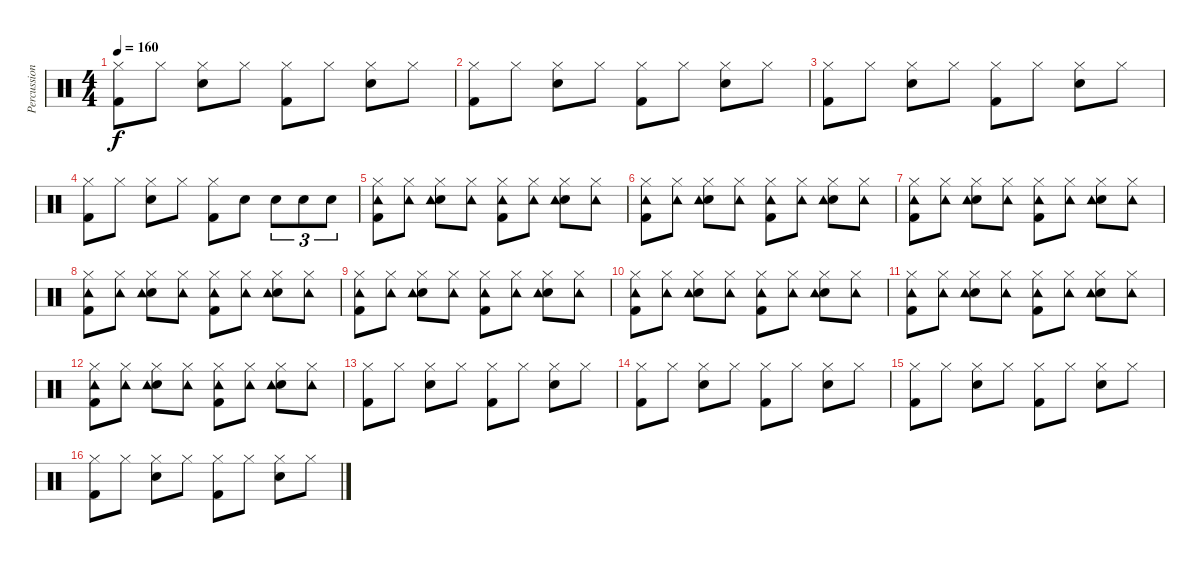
\track ("Percussion" "Percussion") {instrument percussion}
\staff {score}
\articulation defaults
\ts (4 4)
\tempo 160
\clef neutral
\ks c
("Hi-Hat (closed)" "Kick (hit) 2").8{dy f} "Hi-Hat (closed)".8 ("Hi-Hat (closed)" "Snare (hit) 2").8 "Hi-Hat (closed)".8 ("Hi-Hat (closed)" "Kick (hit) 2").8 "Hi-Hat (closed)".8 ("Hi-Hat (closed)" "Snare (hit) 2").8 "Hi-Hat (closed)".8 |
("Hi-Hat (closed)" "Kick (hit) 2").8 "Hi-Hat (closed)".8 ("Hi-Hat (closed)" "Snare (hit) 2").8 "Hi-Hat (closed)".8 ("Hi-Hat (closed)" "Kick (hit) 2").8 "Hi-Hat (closed)".8 ("Hi-Hat (closed)" "Snare (hit) 2").8 "Hi-Hat (closed)".8 |
("Hi-Hat (closed)" "Kick (hit) 2").8 "Hi-Hat (closed)".8 ("Hi-Hat (closed)" "Snare (hit) 2").8 "Hi-Hat (closed)".8 ("Hi-Hat (closed)" "Kick (hit) 2").8 "Hi-Hat (closed)".8 ("Hi-Hat (closed)" "Snare (hit) 2").8 "Hi-Hat (closed)".8 |
("Hi-Hat (closed)" "Kick (hit) 2").8 "Hi-Hat (closed)".8 ("Hi-Hat (closed)" "Snare (hit) 2").8 "Hi-Hat (closed)".8 ("Hi-Hat (closed)" "Kick (hit) 2").8 "Snare (hit) 2".8 "Snare (hit) 2".8{tu (3 2)} "Snare (hit) 2".8{tu (3 2)} "Snare (hit) 2".8{tu (3 2)} |
("Hi-Hat (closed)" "Tambourine (hit)" "Kick (hit) 2").8 ("Hi-Hat (closed)" "Tambourine (hit)").8 ("Hi-Hat (closed)" "Snare (hit) 2" "Tambourine (hit)").8 ("Hi-Hat (closed)" "Tambourine (hit)").8 ("Hi-Hat (closed)" "Tambourine (hit)" "Kick (hit) 2").8 ("Hi-Hat (closed)" "Tambourine (hit)").8 ("Hi-Hat (closed)" "Snare (hit) 2" "Tambourine (hit)").8 ("Hi-Hat (closed)" "Tambourine (hit)").8 |
("Hi-Hat (closed)" "Tambourine (hit)" "Kick (hit) 2").8 ("Hi-Hat (closed)" "Tambourine (hit)").8 ("Hi-Hat (closed)" "Snare (hit) 2" "Tambourine (hit)").8 ("Hi-Hat (closed)" "Tambourine (hit)").8 ("Hi-Hat (closed)" "Tambourine (hit)" "Kick (hit) 2").8 ("Hi-Hat (closed)" "Tambourine (hit)").8 ("Hi-Hat (closed)" "Snare (hit) 2" "Tambourine (hit)").8 ("Hi-Hat (closed)" "Tambourine (hit)").8 |
("Hi-Hat (closed)" "Tambourine (hit)" "Kick (hit) 2").8 ("Hi-Hat (closed)" "Tambourine (hit)").8 ("Hi-Hat (closed)" "Snare (hit) 2" "Tambourine (hit)").8 ("Hi-Hat (closed)" "Tambourine (hit)").8 ("Hi-Hat (closed)" "Tambourine (hit)" "Kick (hit) 2").8 ("Hi-Hat (closed)" "Tambourine (hit)").8 ("Hi-Hat (closed)" "Snare (hit) 2" "Tambourine (hit)").8 ("Hi-Hat (closed)" "Tambourine (hit)").8 |
("Hi-Hat (closed)" "Tambourine (hit)" "Kick (hit) 2").8 ("Hi-Hat (closed)" "Tambourine (hit)").8 ("Hi-Hat (closed)" "Snare (hit) 2" "Tambourine (hit)").8 ("Hi-Hat (closed)" "Tambourine (hit)").8 ("Hi-Hat (closed)" "Tambourine (hit)" "Kick (hit) 2").8 ("Hi-Hat (closed)" "Tambourine (hit)").8 ("Hi-Hat (closed)" "Snare (hit) 2" "Tambourine (hit)").8 ("Hi-Hat (closed)" "Tambourine (hit)").8 |
("Hi-Hat (closed)" "Tambourine (hit)" "Kick (hit) 2").8 ("Hi-Hat (closed)" "Tambourine (hit)").8 ("Hi-Hat (closed)" "Snare (hit) 2" "Tambourine (hit)").8 ("Hi-Hat (closed)" "Tambourine (hit)").8 ("Hi-Hat (closed)" "Tambourine (hit)" "Kick (hit) 2").8 ("Hi-Hat (closed)" "Tambourine (hit)").8 ("Hi-Hat (closed)" "Snare (hit) 2" "Tambourine (hit)").8 ("Hi-Hat (closed)" "Tambourine (hit)").8 |
("Hi-Hat (closed)" "Tambourine (hit)" "Kick (hit) 2").8 ("Hi-Hat (closed)" "Tambourine (hit)").8 ("Hi-Hat (closed)" "Snare (hit) 2" "Tambourine (hit)").8 ("Hi-Hat (closed)" "Tambourine (hit)").8 ("Hi-Hat (closed)" "Tambourine (hit)" "Kick (hit) 2").8 ("Hi-Hat (closed)" "Tambourine (hit)").8 ("Hi-Hat (closed)" "Snare (hit) 2" "Tambourine (hit)").8 ("Hi-Hat (closed)" "Tambourine (hit)").8 |
("Hi-Hat (closed)" "Tambourine (hit)" "Kick (hit) 2").8 ("Hi-Hat (closed)" "Tambourine (hit)").8 ("Hi-Hat (closed)" "Snare (hit) 2" "Tambourine (hit)").8 ("Hi-Hat (closed)" "Tambourine (hit)").8 ("Hi-Hat (closed)" "Tambourine (hit)" "Kick (hit) 2").8 ("Hi-Hat (closed)" "Tambourine (hit)").8 ("Hi-Hat (closed)" "Snare (hit) 2" "Tambourine (hit)").8 ("Hi-Hat (closed)" "Tambourine (hit)").8 |
("Hi-Hat (closed)" "Tambourine (hit)" "Kick (hit) 2").8 ("Hi-Hat (closed)" "Tambourine (hit)").8 ("Hi-Hat (closed)" "Snare (hit) 2" "Tambourine (hit)").8 ("Hi-Hat (closed)" "Tambourine (hit)").8 ("Hi-Hat (closed)" "Tambourine (hit)" "Kick (hit) 2").8 ("Hi-Hat (closed)" "Tambourine (hit)").8 ("Hi-Hat (closed)" "Snare (hit) 2" "Tambourine (hit)").8 ("Hi-Hat (closed)" "Tambourine (hit)").8 |
("Hi-Hat (closed)" "Kick (hit) 2").8 "Hi-Hat (closed)".8 ("Hi-Hat (closed)" "Snare (hit) 2").8 "Hi-Hat (closed)".8 ("Hi-Hat (closed)" "Kick (hit) 2").8 "Hi-Hat (closed)".8 ("Hi-Hat (closed)" "Snare (hit) 2").8 "Hi-Hat (closed)".8 |
("Hi-Hat (closed)" "Kick (hit) 2").8 "Hi-Hat (closed)".8 ("Hi-Hat (closed)" "Snare (hit) 2").8 "Hi-Hat (closed)".8 ("Hi-Hat (closed)" "Kick (hit) 2").8 "Hi-Hat (closed)".8 ("Hi-Hat (closed)" "Snare (hit) 2").8 "Hi-Hat (closed)".8 |
("Hi-Hat (closed)" "Kick (hit) 2").8 "Hi-Hat (closed)".8 ("Hi-Hat (closed)" "Snare (hit) 2").8 "Hi-Hat (closed)".8 ("Hi-Hat (closed)" "Kick (hit) 2").8 "Hi-Hat (closed)".8 ("Hi-Hat (closed)" "Snare (hit) 2").8 "Hi-Hat (closed)".8 |
("Hi-Hat (closed)" "Kick (hit) 2").8 "Hi-Hat (closed)".8 ("Hi-Hat (closed)" "Snare (hit) 2").8 "Hi-Hat (closed)".8 ("Hi-Hat (closed)" "Kick (hit) 2").8 "Hi-Hat (closed)".8 ("Hi-Hat (closed)" "Snare (hit) 2").8 "Hi-Hat (closed)".8
